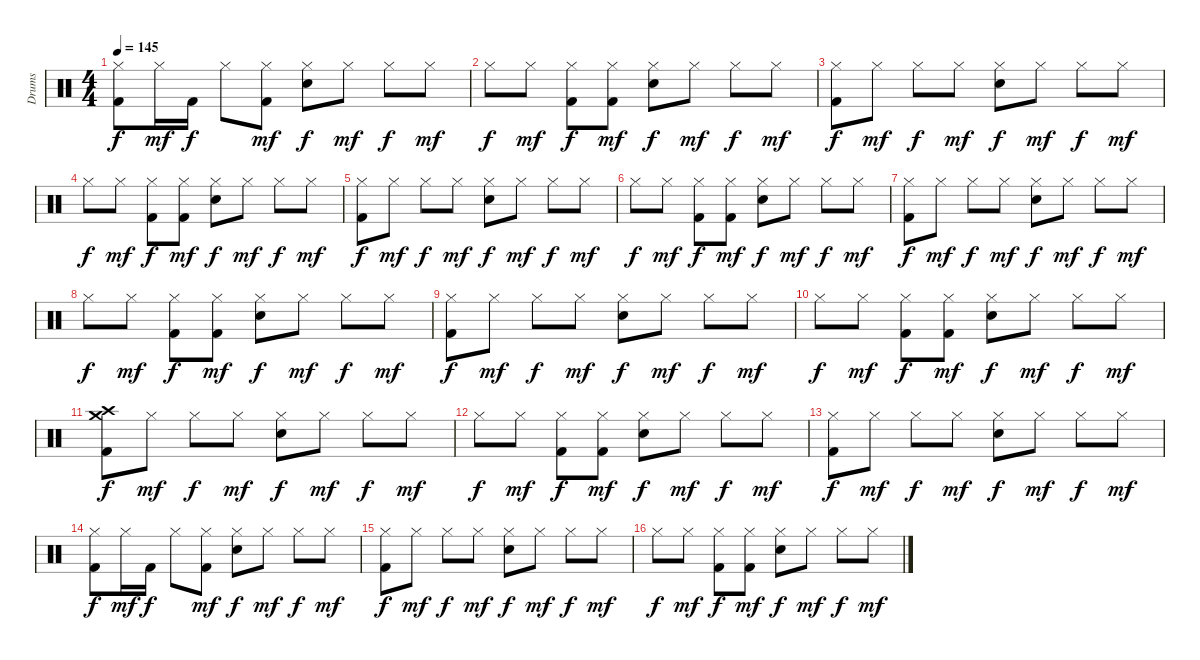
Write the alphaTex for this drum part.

\track ("Drums" "Drums") {instrument percussion}
\staff {score}
\articulation defaults
\ts (4 4)
\tempo 145
\clef neutral
\ks c
("Hi-Hat (closed)" "Kick (hit) 2").8{dy f} "Hi-Hat (closed)".16{dy mf} "Kick (hit) 2".16{dy f} "Hi-Hat (closed)".8 ("Hi-Hat (closed)" "Kick (hit) 2").8{dy mf} ("Hi-Hat (closed)" "Electric Snare (hit)").8{dy f} "Hi-Hat (closed)".8{dy mf} "Hi-Hat (closed)".8{dy f} "Hi-Hat (closed)".8{dy mf} |
"Hi-Hat (closed)".8{dy f} "Hi-Hat (closed)".8{dy mf} ("Hi-Hat (closed)" "Kick (hit) 2").8{dy f} ("Hi-Hat (closed)" "Kick (hit) 2").8{dy mf} ("Hi-Hat (closed)" "Electric Snare (hit)").8{dy f} "Hi-Hat (closed)".8{dy mf} "Hi-Hat (closed)".8{dy f} "Hi-Hat (closed)".8{dy mf} |
("Hi-Hat (closed)" "Kick (hit) 2").8{dy f} "Hi-Hat (closed)".8{dy mf} "Hi-Hat (closed)".8{dy f} "Hi-Hat (closed)".8{dy mf} ("Hi-Hat (closed)" "Electric Snare (hit)").8{dy f} "Hi-Hat (closed)".8{dy mf} "Hi-Hat (closed)".8{dy f} "Hi-Hat (closed)".8{dy mf} |
"Hi-Hat (closed)".8{dy f} "Hi-Hat (closed)".8{dy mf} ("Hi-Hat (closed)" "Kick (hit) 2").8{dy f} ("Hi-Hat (closed)" "Kick (hit) 2").8{dy mf} ("Hi-Hat (closed)" "Electric Snare (hit)").8{dy f} "Hi-Hat (closed)".8{dy mf} "Hi-Hat (closed)".8{dy f} "Hi-Hat (closed)".8{dy mf} |
("Hi-Hat (closed)" "Kick (hit) 2").8{dy f} "Hi-Hat (closed)".8{dy mf} "Hi-Hat (closed)".8{dy f} "Hi-Hat (closed)".8{dy mf} ("Hi-Hat (closed)" "Electric Snare (hit)").8{dy f} "Hi-Hat (closed)".8{dy mf} "Hi-Hat (closed)".8{dy f} "Hi-Hat (closed)".8{dy mf} |
"Hi-Hat (closed)".8{dy f} "Hi-Hat (closed)".8{dy mf} ("Hi-Hat (closed)" "Kick (hit) 2").8{dy f} ("Hi-Hat (closed)" "Kick (hit) 2").8{dy mf} ("Hi-Hat (closed)" "Electric Snare (hit)").8{dy f} "Hi-Hat (closed)".8{dy mf} "Hi-Hat (closed)".8{dy f} "Hi-Hat (closed)".8{dy mf} |
("Hi-Hat (closed)" "Kick (hit) 2").8{dy f} "Hi-Hat (closed)".8{dy mf} "Hi-Hat (closed)".8{dy f} "Hi-Hat (closed)".8{dy mf} ("Hi-Hat (closed)" "Electric Snare (hit)").8{dy f} "Hi-Hat (closed)".8{dy mf} "Hi-Hat (closed)".8{dy f} "Hi-Hat (closed)".8{dy mf} |
"Hi-Hat (closed)".8{dy f} "Hi-Hat (closed)".8{dy mf} ("Hi-Hat (closed)" "Kick (hit) 2").8{dy f} ("Hi-Hat (closed)" "Kick (hit) 2").8{dy mf} ("Hi-Hat (closed)" "Electric Snare (hit)").8{dy f} "Hi-Hat (closed)".8{dy mf} "Hi-Hat (closed)".8{dy f} "Hi-Hat (closed)".8{dy mf} |
("Hi-Hat (closed)" "Kick (hit) 2").8{dy f} "Hi-Hat (closed)".8{dy mf} "Hi-Hat (closed)".8{dy f} "Hi-Hat (closed)".8{dy mf} ("Hi-Hat (closed)" "Electric Snare (hit)").8{dy f} "Hi-Hat (closed)".8{dy mf} "Hi-Hat (closed)".8{dy f} "Hi-Hat (closed)".8{dy mf} |
"Hi-Hat (closed)".8{dy f} "Hi-Hat (closed)".8{dy mf} ("Hi-Hat (closed)" "Kick (hit) 2").8{dy f} ("Hi-Hat (closed)" "Kick (hit) 2").8{dy mf} ("Hi-Hat (closed)" "Electric Snare (hit)").8{dy f} "Hi-Hat (closed)".8{dy mf} "Hi-Hat (closed)".8{dy f} "Hi-Hat (closed)".8{dy mf} |
("Crash medium (hit)" "Crash high (hit)" "Kick (hit) 2").8{dy f volume 10} "Hi-Hat (closed)".8{dy mf} "Hi-Hat (closed)".8{dy f} "Hi-Hat (closed)".8{dy mf} ("Hi-Hat (closed)" "Electric Snare (hit)").8{dy f} "Hi-Hat (closed)".8{dy mf} "Hi-Hat (closed)".8{dy f} "Hi-Hat (closed)".8{dy mf} |
"Hi-Hat (closed)".8{dy f} "Hi-Hat (closed)".8{dy mf} ("Hi-Hat (closed)" "Kick (hit) 2").8{dy f} ("Hi-Hat (closed)" "Kick (hit) 2").8{dy mf} ("Hi-Hat (closed)" "Electric Snare (hit)").8{dy f} "Hi-Hat (closed)".8{dy mf} "Hi-Hat (closed)".8{dy f} "Hi-Hat (closed)".8{dy mf} |
("Hi-Hat (closed)" "Kick (hit) 2").8{dy f} "Hi-Hat (closed)".8{dy mf} "Hi-Hat (closed)".8{dy f} "Hi-Hat (closed)".8{dy mf} ("Hi-Hat (closed)" "Electric Snare (hit)").8{dy f} "Hi-Hat (closed)".8{dy mf} "Hi-Hat (closed)".8{dy f} "Hi-Hat (closed)".8{dy mf} |
("Hi-Hat (closed)" "Kick (hit) 2").8{dy f} "Hi-Hat (closed)".16{dy mf} "Kick (hit) 2".16{dy f} "Hi-Hat (closed)".8 ("Hi-Hat (closed)" "Kick (hit) 2").8{dy mf} ("Hi-Hat (closed)" "Electric Snare (hit)").8{dy f} "Hi-Hat (closed)".8{dy mf} "Hi-Hat (closed)".8{dy f} "Hi-Hat (closed)".8{dy mf} |
("Hi-Hat (closed)" "Kick (hit) 2").8{dy f} "Hi-Hat (closed)".8{dy mf} "Hi-Hat (closed)".8{dy f volume 6} "Hi-Hat (closed)".8{dy mf} ("Hi-Hat (closed)" "Electric Snare (hit)").8{dy f} "Hi-Hat (closed)".8{dy mf} "Hi-Hat (closed)".8{dy f} "Hi-Hat (closed)".8{dy mf} |
"Hi-Hat (closed)".8{dy f} "Hi-Hat (closed)".8{dy mf} ("Hi-Hat (closed)" "Kick (hit) 2").8{dy f} ("Hi-Hat (closed)" "Kick (hit) 2").8{dy mf} ("Hi-Hat (closed)" "Electric Snare (hit)").8{dy f} "Hi-Hat (closed)".8{dy mf} "Hi-Hat (closed)".8{dy f} "Hi-Hat (closed)".8{dy mf}
